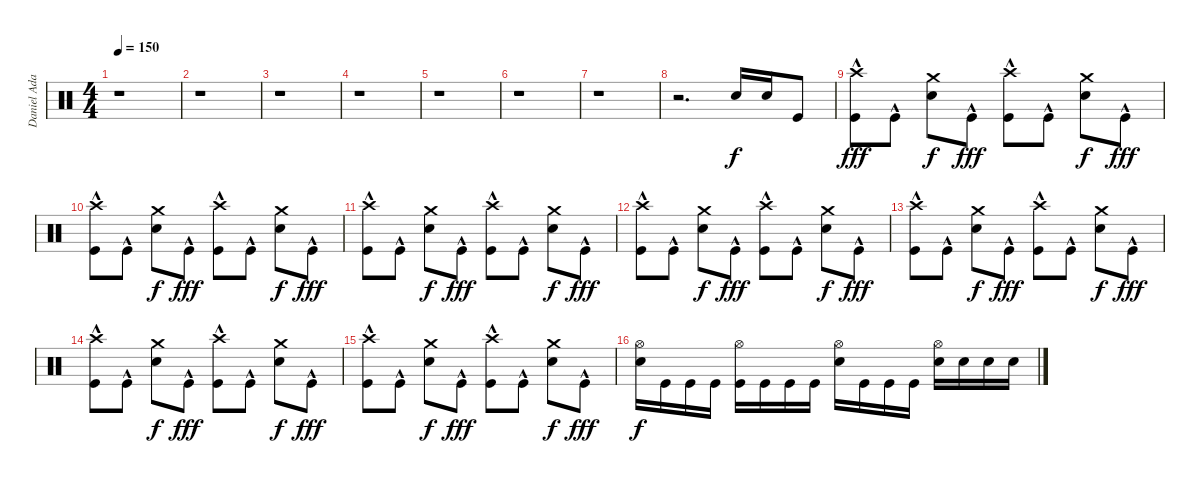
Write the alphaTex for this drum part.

\track ("Daniel Adair" "Daniel Ada") {instrument percussion}
\staff {score}
\articulation defaults
\ts (4 4)
\tempo 150
\clef neutral
\ks c
r.1{dy f} |
r.1 |
r.1 |
r.1 |
r.1 |
r.1 |
r.1 |
r.2{d} "Electric Snare (hit)".16 "Electric Snare (hit)".16 "Kick (hit)".8 |
("Kick (hit)"{hac} "Crash high (hit)").8{dy fff} "Kick (hit)"{hac}.8 ("Electric Snare (hit)" "Crash medium (hit)").8{dy f} "Kick (hit)"{hac}.8{dy fff} ("Kick (hit)"{hac} "Crash high (hit)").8 "Kick (hit)"{hac}.8 ("Electric Snare (hit)" "Crash medium (hit)").8{dy f} "Kick (hit)"{hac}.8{dy fff} |
("Kick (hit)"{hac} "Crash high (hit)").8 "Kick (hit)"{hac}.8 ("Electric Snare (hit)" "Crash medium (hit)").8{dy f} "Kick (hit)"{hac}.8{dy fff} ("Kick (hit)"{hac} "Crash high (hit)").8 "Kick (hit)"{hac}.8 ("Electric Snare (hit)" "Crash medium (hit)").8{dy f} "Kick (hit)"{hac}.8{dy fff} |
("Kick (hit)"{hac} "Crash high (hit)").8 "Kick (hit)"{hac}.8 ("Electric Snare (hit)" "Crash medium (hit)").8{dy f} "Kick (hit)"{hac}.8{dy fff} ("Kick (hit)"{hac} "Crash high (hit)").8 "Kick (hit)"{hac}.8 ("Electric Snare (hit)" "Crash medium (hit)").8{dy f} "Kick (hit)"{hac}.8{dy fff} |
("Kick (hit)"{hac} "Crash high (hit)").8 "Kick (hit)"{hac}.8 ("Electric Snare (hit)" "Crash medium (hit)").8{dy f} "Kick (hit)"{hac}.8{dy fff} ("Kick (hit)"{hac} "Crash high (hit)").8 "Kick (hit)"{hac}.8 ("Electric Snare (hit)" "Crash medium (hit)").8{dy f} "Kick (hit)"{hac}.8{dy fff} |
("Kick (hit)"{hac} "Crash high (hit)").8 "Kick (hit)"{hac}.8 ("Electric Snare (hit)" "Crash medium (hit)").8{dy f} "Kick (hit)"{hac}.8{dy fff} ("Kick (hit)"{hac} "Crash high (hit)").8 "Kick (hit)"{hac}.8 ("Electric Snare (hit)" "Crash medium (hit)").8{dy f} "Kick (hit)"{hac}.8{dy fff} |
("Kick (hit)"{hac} "Crash high (hit)").8 "Kick (hit)"{hac}.8 ("Electric Snare (hit)" "Crash medium (hit)").8{dy f} "Kick (hit)"{hac}.8{dy fff} ("Kick (hit)"{hac} "Crash high (hit)").8 "Kick (hit)"{hac}.8 ("Electric Snare (hit)" "Crash medium (hit)").8{dy f} "Kick (hit)"{hac}.8{dy fff} |
("Kick (hit)"{hac} "Crash high (hit)").8 "Kick (hit)"{hac}.8 ("Electric Snare (hit)" "Crash medium (hit)").8{dy f} "Kick (hit)"{hac}.8{dy fff} ("Kick (hit)"{hac} "Crash high (hit)").8 "Kick (hit)"{hac}.8 ("Electric Snare (hit)" "Crash medium (hit)").8{dy f} "Kick (hit)"{hac}.8{dy fff} |
("Electric Snare (hit)" "Hi-Hat (open)").16{dy f} "Kick (hit)".16 "Kick (hit)".16 "Kick (hit)".16 ("Kick (hit)" "Hi-Hat (open)").16 "Kick (hit)".16 "Kick (hit)".16 "Kick (hit)".16 ("Electric Snare (hit)" "Hi-Hat (open)").16 "Kick (hit)".16 "Kick (hit)".16 "Kick (hit)".16 ("Electric Snare (hit)" "Hi-Hat (open)").16 "Electric Snare (hit)".16 "Electric Snare (hit)".16 "Electric Snare (hit)".16
